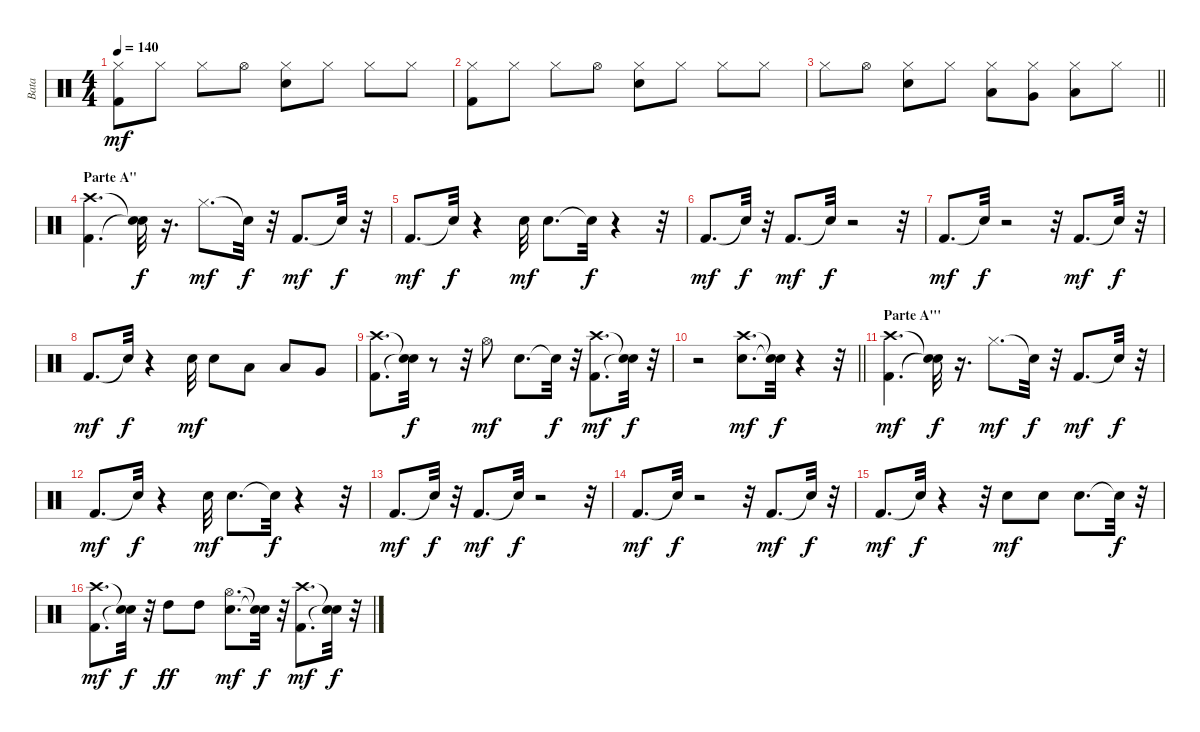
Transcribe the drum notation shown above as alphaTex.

\track ("Bata" "Bata") {instrument percussion}
\staff {score}
\articulation defaults
\ts (4 4)
\tempo 140
\clef neutral
\ks c
("Kick (hit) 2" "Hi-Hat (closed)").8{dy mf} "Hi-Hat (closed)".8 "Hi-Hat (closed)".8 "Hi-Hat (open)".8 ("Hi-Hat (closed)" "Snare (hit) 2").8 "Hi-Hat (closed)".8 "Hi-Hat (closed)".8 "Hi-Hat (closed)".8 |
("Hi-Hat (closed)" "Kick (hit) 2").8 "Hi-Hat (closed)".8 "Hi-Hat (closed)".8 "Hi-Hat (open)".8 ("Snare (hit) 2" "Hi-Hat (closed)").8 "Hi-Hat (closed)".8 "Hi-Hat (closed)".8 "Hi-Hat (closed)".8 |
\barLineRight lightlight "Hi-Hat (closed)".8 "Hi-Hat (open)".8
("Snare (hit) 2" "Hi-Hat (closed)").8 "Hi-Hat (closed)".8 ("Low Tom (hit)" "Hi-Hat (closed)").8 ("Very Low Tom (hit)" "Hi-Hat (closed)").8 ("Low Floor Tom (hit)" "Hi-Hat (closed)").8 "Hi-Hat (closed)".8 |
\section ("" "Parte A''")
("Kick (hit) 2" "Crash high (hit)").4{d} ("Snare (hit)"{t} "Snare (hit)"{t}).32{dy f} r.16{d} "Hi-Hat (closed)".8{d dy mf} "Snare (hit)"{t}.32{dy f} r.32 "Kick (hit) 2".8{d dy mf} "Snare (hit)"{t}.32{dy f} r.32 |
"Kick (hit) 2".8{d dy mf} "Snare (hit)"{t}.32{dy f} r.4 "Snare (hit) 2".32{dy mf} "Snare (hit) 2".8{d} "Snare (hit)"{t}.32{dy f} r.4 r.32 |
"Kick (hit) 2".8{d dy mf} "Snare (hit)"{t}.32{dy f} r.32 "Kick (hit) 2".8{d dy mf} "Snare (hit)"{t}.32{dy f} r.2 r.32 |
"Kick (hit) 2".8{d dy mf} "Snare (hit)"{t}.32{dy f} r.2 r.32 "Kick (hit) 2".8{d dy mf} "Snare (hit)"{t}.32{dy f} r.32 |
"Kick (hit) 2".8{d dy mf} "Snare (hit)"{t}.32{dy f} r.4 "Snare (hit) 2".32{dy mf} "Snare (hit) 2".8 "Low Tom (hit)".8 "Low Tom (hit)".8 "Very Low Tom (hit)".8 |
("Kick (hit) 2" "Crash high (hit)").8{d} ("Snare (hit)"{t} "Snare (hit)"{t}).32{dy f} r.8 r.32 "Hi-Hat (open)".8{dy mf} "Snare (hit) 2".8{d} "Snare (hit)"{t}.32{dy f} r.32 ("Kick (hit) 2" "Crash high (hit)").8{d dy mf} ("Snare (hit)"{t} "Snare (hit)"{t}).32{dy f} r.32 |
\barLineRight lightlight
r.2 ("Snare (hit) 2" "Crash high (hit)").8{d dy mf} ("Snare (hit)"{t} "Snare (hit)"{t}).32{dy f} r.4 r.32 |
\section ("" "Parte A'''")
("Crash high (hit)" "Kick (hit) 2").4{d dy mf} ("Snare (hit)"{t} "Snare (hit)"{t}).32{dy f} r.16{d} "Hi-Hat (closed)".8{d dy mf} "Snare (hit)"{t}.32{dy f} r.32 "Kick (hit) 2".8{d dy mf} "Snare (hit)"{t}.32{dy f} r.32 |
"Kick (hit) 2".8{d dy mf} "Snare (hit)"{t}.32{dy f} r.4 "Snare (hit) 2".32{dy mf} "Snare (hit) 2".8{d} "Snare (hit)"{t}.32{dy f} r.4 r.32 |
"Kick (hit) 2".8{d dy mf} "Snare (hit)"{t}.32{dy f} r.32 "Kick (hit) 2".8{d dy mf} "Snare (hit)"{t}.32{dy f} r.2 r.32 |
"Kick (hit) 2".8{d dy mf} "Snare (hit)"{t}.32{dy f} r.2 r.32 "Kick (hit) 2".8{d dy mf} "Snare (hit)"{t}.32{dy f} r.32 |
"Kick (hit) 2".8{d dy mf} "Snare (hit)"{t}.32{dy f} r.4 r.32 "Snare (hit) 2".8{dy mf} "Snare (hit) 2".8 "Snare (hit) 2".8{d} "Snare (hit)"{t}.32{dy f} r.32 |
("Crash high (hit)" "Kick (hit) 2").8{d dy mf} ("Snare (hit)"{t} "Snare (hit)"{t}).32{dy f} r.32 "High Tom (hit)".8{dy ff} "High Tom (hit)".8 ("Snare (hit) 2" "Hi-Hat (open)").8{d dy mf} ("Snare (hit)"{t} "Snare (hit)"{t}).32{dy f} r.32 ("Crash high (hit)" "Kick (hit) 2").8{d dy mf} ("Snare (hit)"{t} "Snare (hit)"{t}).32{dy f} r.32
